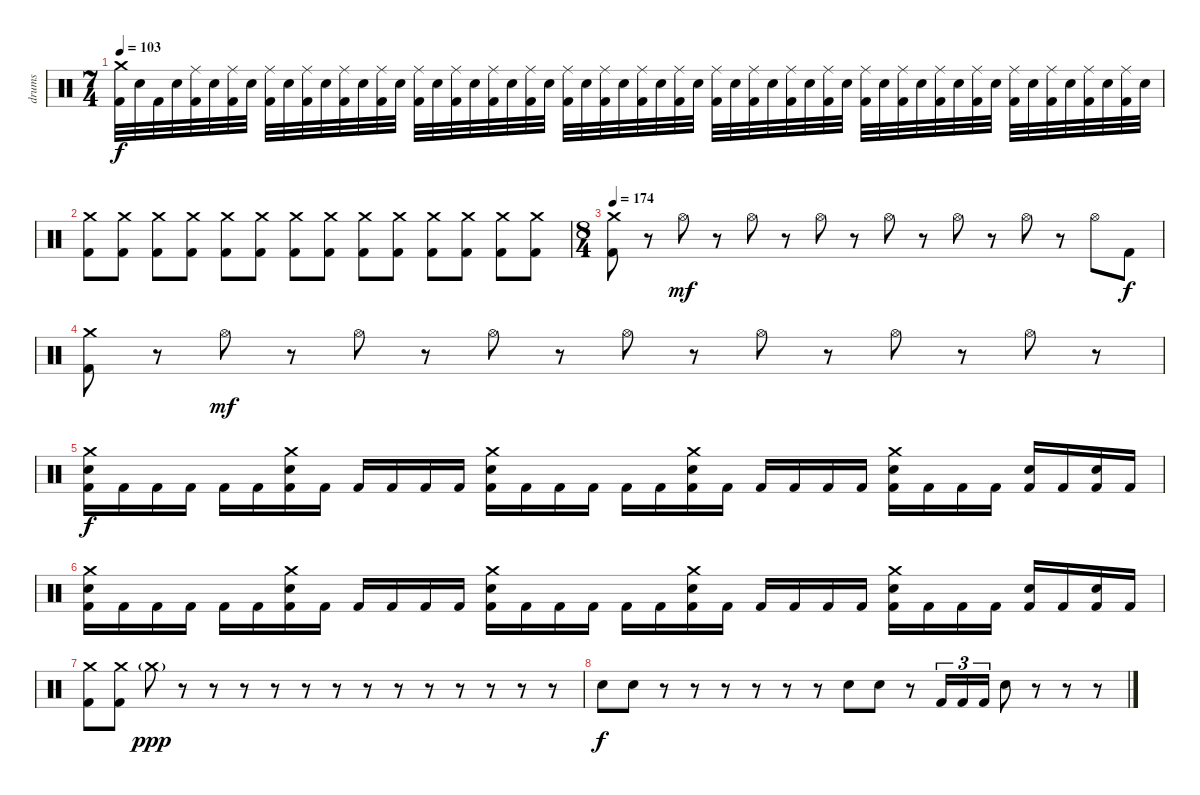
\track ("drums" "drums") {instrument percussion}
\staff {score}
\articulation defaults
\ts (7 4)
\tempo 103
\clef neutral
\ks c
("Crash medium (hit)" "Kick (hit) 2").32{dy f} "Electric Snare (hit)".32 "Kick (hit) 2".32 "Electric Snare (hit)".32 ("Ride (middle)" "Kick (hit) 2").32 "Electric Snare (hit)".32 ("Ride (middle)" "Kick (hit) 2").32 "Electric Snare (hit)".32 ("Ride (middle)" "Kick (hit) 2").32 "Electric Snare (hit)".32 ("Ride (middle)" "Kick (hit) 2").32 "Electric Snare (hit)".32 ("Ride (middle)" "Kick (hit) 2").32 "Electric Snare (hit)".32 ("Ride (middle)" "Kick (hit) 2").32 "Electric Snare (hit)".32 ("Ride (middle)" "Kick (hit) 2").32 "Electric Snare (hit)".32 ("Ride (middle)" "Kick (hit) 2").32 "Electric Snare (hit)".32 ("Ride (middle)" "Kick (hit) 2").32 "Electric Snare (hit)".32 ("Ride (middle)" "Kick (hit) 2").32 "Electric Snare (hit)".32 ("Ride (middle)" "Kick (hit) 2").32 "Electric Snare (hit)".32 ("Ride (middle)" "Kick (hit) 2").32 "Electric Snare (hit)".32 ("Ride (middle)" "Kick (hit) 2").32 "Electric Snare (hit)".32 ("Ride (middle)" "Kick (hit) 2").32 "Electric Snare (hit)".32 ("Ride (middle)" "Kick (hit) 2").32 "Electric Snare (hit)".32 ("Ride (middle)" "Kick (hit) 2").32 "Electric Snare (hit)".32 ("Ride (middle)" "Kick (hit) 2").32 "Electric Snare (hit)".32 ("Ride (middle)" "Kick (hit) 2").32 "Electric Snare (hit)".32 ("Ride (middle)" "Kick (hit) 2").32 "Electric Snare (hit)".32 ("Ride (middle)" "Kick (hit) 2").32 "Electric Snare (hit)".32 ("Ride (middle)" "Kick (hit) 2").32 "Electric Snare (hit)".32 ("Ride (middle)" "Kick (hit) 2").32 "Electric Snare (hit)".32 ("Ride (middle)" "Kick (hit) 2").32 "Electric Snare (hit)".32 ("Ride (middle)" "Kick (hit) 2").32 "Electric Snare (hit)".32 ("Ride (middle)" "Kick (hit) 2").32 "Electric Snare (hit)".32 ("Ride (middle)" "Kick (hit) 2").32 "Electric Snare (hit)".32 |
("Crash medium (hit)" "Kick (hit) 2").8 ("Crash medium (hit)" "Kick (hit) 2").8 ("Crash medium (hit)" "Kick (hit) 2").8 ("Crash medium (hit)" "Kick (hit) 2").8 ("Crash medium (hit)" "Kick (hit) 2").8 ("Crash medium (hit)" "Kick (hit) 2").8 ("Crash medium (hit)" "Kick (hit) 2").8 ("Crash medium (hit)" "Kick (hit) 2").8 ("Crash medium (hit)" "Kick (hit) 2").8 ("Crash medium (hit)" "Kick (hit) 2").8 ("Crash medium (hit)" "Kick (hit) 2").8 ("Crash medium (hit)" "Kick (hit) 2").8 ("Crash medium (hit)" "Kick (hit) 2").8 ("Crash medium (hit)" "Kick (hit) 2").8 |
\ts (8 4)
\tempo 174
("Crash medium (hit)" "Kick (hit) 2").8 r.8 "Hi-Hat (open)".8{dy mf} r.8 "Hi-Hat (open)".8 r.8 "Hi-Hat (open)".8 r.8 "Hi-Hat (open)".8 r.8 "Hi-Hat (open)".8 r.8 "Hi-Hat (open)".8 r.8 "Hi-Hat (open)".8 "Kick (hit) 2".8{dy f} |
("Crash medium (hit)" "Kick (hit) 2").8 r.8 "Hi-Hat (open)".8{dy mf} r.8 "Hi-Hat (open)".8 r.8 "Hi-Hat (open)".8 r.8 "Hi-Hat (open)".8 r.8 "Hi-Hat (open)".8 r.8 "Hi-Hat (open)".8 r.8 "Hi-Hat (open)".8 r.8 |
("Crash medium (hit)" "Electric Snare (hit)" "Kick (hit) 2").16{dy f} "Kick (hit) 2".16 "Kick (hit) 2".16 "Kick (hit) 2".16 "Kick (hit) 2".16 "Kick (hit) 2".16 ("Crash medium (hit)" "Electric Snare (hit)" "Kick (hit) 2").16 "Kick (hit) 2".16 "Kick (hit) 2".16 "Kick (hit) 2".16 "Kick (hit) 2".16 "Kick (hit) 2".16 ("Crash medium (hit)" "Electric Snare (hit)" "Kick (hit) 2").16 "Kick (hit) 2".16 "Kick (hit) 2".16 "Kick (hit) 2".16 "Kick (hit) 2".16 "Kick (hit) 2".16 ("Crash medium (hit)" "Electric Snare (hit)" "Kick (hit) 2").16 "Kick (hit) 2".16 "Kick (hit) 2".16 "Kick (hit) 2".16 "Kick (hit) 2".16 "Kick (hit) 2".16 ("Crash medium (hit)" "Electric Snare (hit)" "Kick (hit) 2").16 "Kick (hit) 2".16 "Kick (hit) 2".16 "Kick (hit) 2".16 ("Electric Snare (hit)" "Kick (hit) 2").16 "Kick (hit) 2".16 ("Electric Snare (hit)" "Kick (hit) 2").16 "Kick (hit) 2".16 |
("Crash medium (hit)" "Electric Snare (hit)" "Kick (hit) 2").16 "Kick (hit) 2".16 "Kick (hit) 2".16 "Kick (hit) 2".16 "Kick (hit) 2".16 "Kick (hit) 2".16 ("Crash medium (hit)" "Electric Snare (hit)" "Kick (hit) 2").16 "Kick (hit) 2".16 "Kick (hit) 2".16 "Kick (hit) 2".16 "Kick (hit) 2".16 "Kick (hit) 2".16 ("Crash medium (hit)" "Electric Snare (hit)" "Kick (hit) 2").16 "Kick (hit) 2".16 "Kick (hit) 2".16 "Kick (hit) 2".16 "Kick (hit) 2".16 "Kick (hit) 2".16 ("Crash medium (hit)" "Electric Snare (hit)" "Kick (hit) 2").16 "Kick (hit) 2".16 "Kick (hit) 2".16 "Kick (hit) 2".16 "Kick (hit) 2".16 "Kick (hit) 2".16 ("Crash medium (hit)" "Electric Snare (hit)" "Kick (hit) 2").16 "Kick (hit) 2".16 "Kick (hit) 2".16 "Kick (hit) 2".16 ("Electric Snare (hit)" "Kick (hit) 2").16 "Kick (hit) 2".16 ("Electric Snare (hit)" "Kick (hit) 2").16 "Kick (hit) 2".16 |
("Crash medium (hit)" "Kick (hit) 2").8 ("Crash medium (hit)" "Kick (hit) 2").8 "Crash medium (hit)"{g}.8{dy ppp} r.8 r.8 r.8 r.8 r.8 r.8 r.8 r.8 r.8 r.8 r.8 r.8 r.8 |
"Electric Snare (hit)".8{dy f} "Electric Snare (hit)".8 r.8 r.8 r.8 r.8 r.8 r.8 "Electric Snare (hit)".8 "Electric Snare (hit)".8 r.8 "Kick (hit) 2".16{tu (3 2)} "Kick (hit) 2".16{tu (3 2)} "Kick (hit) 2".16{tu (3 2)} "Electric Snare (hit)".8 r.8 r.8 r.8
